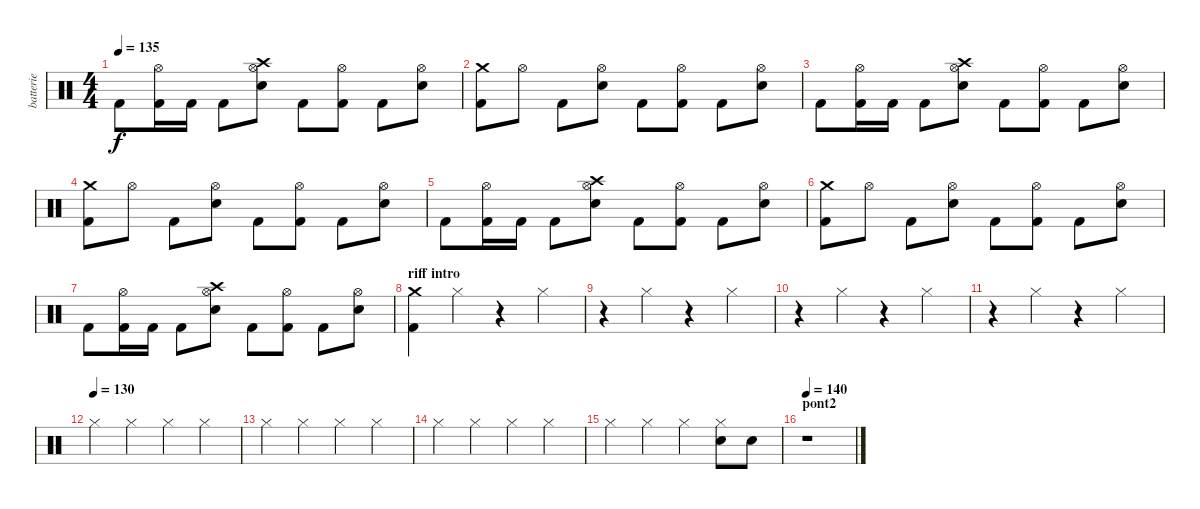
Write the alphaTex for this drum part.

\track ("batterie" "batterie") {instrument percussion}
\staff {score}
\articulation defaults
\ts (4 4)
\tempo 135
\clef neutral
\ks c "Kick (hit) 2".8{dy f}
("Kick (hit) 2" "Hi-Hat (open)").16 "Kick (hit) 2".16 "Kick (hit) 2".8 ("Crash high (hit)" "Snare (hit) 2" "Hi-Hat (open)").8 "Kick (hit) 2".8 ("Kick (hit) 2" "Hi-Hat (open)").8 "Kick (hit) 2".8 ("Snare (hit) 2" "Hi-Hat (open)").8 |
("Crash medium (hit)" "Kick (hit) 2").8 "Hi-Hat (open)".8 "Kick (hit) 2".8 ("Snare (hit) 2" "Hi-Hat (open)").8 "Kick (hit) 2".8 ("Kick (hit) 2" "Hi-Hat (open)").8 "Kick (hit) 2".8 ("Snare (hit) 2" "Hi-Hat (open)").8 |
"Kick (hit) 2".8 ("Kick (hit) 2" "Hi-Hat (open)").16 "Kick (hit) 2".16 "Kick (hit) 2".8 ("Crash high (hit)" "Snare (hit) 2" "Hi-Hat (open)").8 "Kick (hit) 2".8 ("Kick (hit) 2" "Hi-Hat (open)").8 "Kick (hit) 2".8 ("Snare (hit) 2" "Hi-Hat (open)").8 |
("Crash medium (hit)" "Kick (hit) 2").8 "Hi-Hat (open)".8 "Kick (hit) 2".8 ("Snare (hit) 2" "Hi-Hat (open)").8 "Kick (hit) 2".8 ("Kick (hit) 2" "Hi-Hat (open)").8 "Kick (hit) 2".8 ("Snare (hit) 2" "Hi-Hat (open)").8 |
"Kick (hit) 2".8 ("Kick (hit) 2" "Hi-Hat (open)").16 "Kick (hit) 2".16 "Kick (hit) 2".8 ("Crash high (hit)" "Snare (hit) 2" "Hi-Hat (open)").8 "Kick (hit) 2".8 ("Kick (hit) 2" "Hi-Hat (open)").8 "Kick (hit) 2".8 ("Snare (hit) 2" "Hi-Hat (open)").8 |
("Crash medium (hit)" "Kick (hit) 2").8 "Hi-Hat (open)".8 "Kick (hit) 2".8 ("Snare (hit) 2" "Hi-Hat (open)").8 "Kick (hit) 2".8 ("Kick (hit) 2" "Hi-Hat (open)").8 "Kick (hit) 2".8 ("Snare (hit) 2" "Hi-Hat (open)").8 |
"Kick (hit) 2".8 ("Kick (hit) 2" "Hi-Hat (open)").16 "Kick (hit) 2".16 "Kick (hit) 2".8 ("Crash high (hit)" "Snare (hit) 2" "Hi-Hat (open)").8 "Kick (hit) 2".8 ("Kick (hit) 2" "Hi-Hat (open)").8 "Kick (hit) 2".8 ("Snare (hit) 2" "Hi-Hat (open)").8 |
\section ("" "riff intro")
("Crash medium (hit)" "Kick (hit) 2").4 "Hi-Hat (closed)".4 r.4 "Hi-Hat (closed)".4 |
r.4 "Hi-Hat (closed)".4 r.4 "Hi-Hat (closed)".4 |
r.4 "Hi-Hat (closed)".4 r.4 "Hi-Hat (closed)".4 |
r.4 "Hi-Hat (closed)".4 r.4 "Hi-Hat (closed)".4 |
\tempo (130)
"Hi-Hat (closed)".4 "Hi-Hat (closed)".4 "Hi-Hat (closed)".4 "Hi-Hat (closed)".4 |
"Hi-Hat (closed)".4 "Hi-Hat (closed)".4 "Hi-Hat (closed)".4 "Hi-Hat (closed)".4 |
"Hi-Hat (closed)".4 "Hi-Hat (closed)".4 "Hi-Hat (closed)".4 "Hi-Hat (closed)".4 |
"Hi-Hat (closed)".4 "Hi-Hat (closed)".4 "Hi-Hat (closed)".4 ("Snare (hit) 2" "Hi-Hat (closed)").8 "Snare (hit) 2".8 |
\section ("" "pont2")
\tempo 140
r.1
